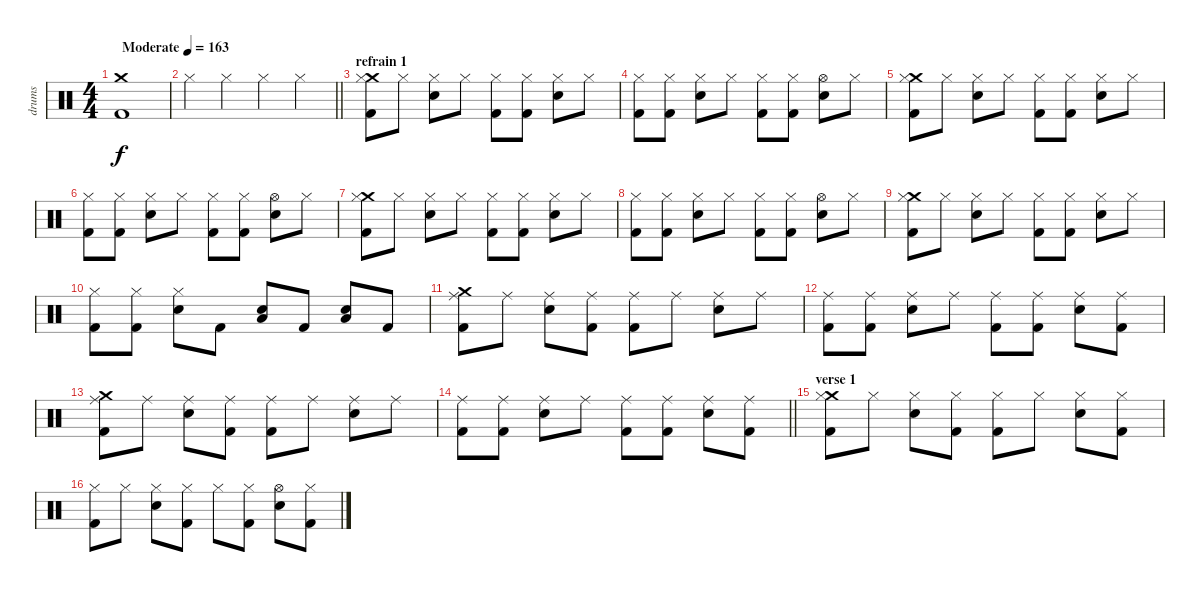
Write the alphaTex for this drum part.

\track ("drums" "drums") {instrument percussion}
\staff {score}
\articulation defaults
\ts (4 4)
\tempo (163 "Moderate")
\clef neutral
\ks c
("Crash medium (hit)" "Kick (hit) 2").1{dy f} |
\barLineRight lightlight "Hi-Hat (closed)".4 "Hi-Hat (closed)".4 "Hi-Hat (closed)".4 "Hi-Hat (closed)".4
|
\section ("" "refrain 1")
("Crash medium (hit)" "Hi-Hat (closed)" "Kick (hit) 2").8 "Hi-Hat (closed)".8 ("Hi-Hat (closed)" "Electric Snare (hit)").8 "Hi-Hat (closed)".8 ("Hi-Hat (closed)" "Kick (hit) 2").8 ("Hi-Hat (closed)" "Kick (hit) 2").8 ("Hi-Hat (closed)" "Electric Snare (hit)").8 "Hi-Hat (closed)".8 |
("Hi-Hat (closed)" "Kick (hit) 2").8 ("Hi-Hat (closed)" "Kick (hit) 2").8 ("Hi-Hat (closed)" "Electric Snare (hit)").8 "Hi-Hat (closed)".8 ("Hi-Hat (closed)" "Kick (hit) 2").8 ("Hi-Hat (closed)" "Kick (hit) 2").8 ("Hi-Hat (open)" "Electric Snare (hit)").8 "Hi-Hat (closed)".8 |
("Crash medium (hit)" "Hi-Hat (closed)" "Kick (hit) 2").8 "Hi-Hat (closed)".8 ("Hi-Hat (closed)" "Electric Snare (hit)").8 "Hi-Hat (closed)".8 ("Hi-Hat (closed)" "Kick (hit) 2").8 ("Hi-Hat (closed)" "Kick (hit) 2").8 ("Hi-Hat (closed)" "Electric Snare (hit)").8 "Hi-Hat (closed)".8 |
("Hi-Hat (closed)" "Kick (hit) 2").8 ("Hi-Hat (closed)" "Kick (hit) 2").8 ("Hi-Hat (closed)" "Electric Snare (hit)").8 "Hi-Hat (closed)".8 ("Hi-Hat (closed)" "Kick (hit) 2").8 ("Hi-Hat (closed)" "Kick (hit) 2").8 ("Hi-Hat (open)" "Electric Snare (hit)").8 "Hi-Hat (closed)".8 |
("Crash medium (hit)" "Hi-Hat (closed)" "Kick (hit) 2").8 "Hi-Hat (closed)".8 ("Hi-Hat (closed)" "Electric Snare (hit)").8 "Hi-Hat (closed)".8 ("Hi-Hat (closed)" "Kick (hit) 2").8 ("Hi-Hat (closed)" "Kick (hit) 2").8 ("Hi-Hat (closed)" "Electric Snare (hit)").8 "Hi-Hat (closed)".8 |
("Hi-Hat (closed)" "Kick (hit) 2").8 ("Hi-Hat (closed)" "Kick (hit) 2").8 ("Hi-Hat (closed)" "Electric Snare (hit)").8 "Hi-Hat (closed)".8 ("Hi-Hat (closed)" "Kick (hit) 2").8 ("Hi-Hat (closed)" "Kick (hit) 2").8 ("Hi-Hat (open)" "Electric Snare (hit)").8 "Hi-Hat (closed)".8 |
("Crash medium (hit)" "Hi-Hat (closed)" "Kick (hit) 2").8 "Hi-Hat (closed)".8 ("Hi-Hat (closed)" "Electric Snare (hit)").8 "Hi-Hat (closed)".8 ("Hi-Hat (closed)" "Kick (hit) 2").8 ("Hi-Hat (closed)" "Kick (hit) 2").8 ("Hi-Hat (closed)" "Electric Snare (hit)").8 "Hi-Hat (closed)".8 |
("Hi-Hat (closed)" "Kick (hit) 2").8 ("Hi-Hat (closed)" "Kick (hit) 2").8 ("Hi-Hat (closed)" "Electric Snare (hit)").8 "Kick (hit) 2".8 ("Low Tom (hit)" "Electric Snare (hit)").8 "Kick (hit) 2".8 ("Low Tom (hit)" "Electric Snare (hit)").8 "Kick (hit) 2".8 |
("Crash medium (hit)" "Ride (middle)" "Kick (hit) 2").8 "Ride (middle)".8 ("Ride (middle)" "Electric Snare (hit)").8 ("Ride (middle)" "Kick (hit) 2").8 ("Ride (middle)" "Kick (hit) 2").8 "Ride (middle)".8 ("Ride (middle)" "Electric Snare (hit)").8 "Ride (middle)".8 |
("Ride (middle)" "Kick (hit) 2").8 ("Ride (middle)" "Kick (hit) 2").8 ("Ride (middle)" "Electric Snare (hit)").8 "Ride (middle)".8 ("Ride (middle)" "Kick (hit) 2").8 ("Ride (middle)" "Kick (hit) 2").8 ("Ride (middle)" "Electric Snare (hit)").8 ("Ride (middle)" "Kick (hit) 2").8 |
("Crash medium (hit)" "Ride (middle)" "Kick (hit) 2").8 "Ride (middle)".8 ("Ride (middle)" "Electric Snare (hit)").8 ("Ride (middle)" "Kick (hit) 2").8 ("Ride (middle)" "Kick (hit) 2").8 "Ride (middle)".8 ("Ride (middle)" "Electric Snare (hit)").8 "Ride (middle)".8 |
\barLineRight lightlight
("Ride (middle)" "Kick (hit) 2").8 ("Ride (middle)" "Kick (hit) 2").8 ("Ride (middle)" "Electric Snare (hit)").8 "Ride (middle)".8 ("Ride (middle)" "Kick (hit) 2").8 ("Ride (middle)" "Kick (hit) 2").8 ("Ride (middle)" "Electric Snare (hit)").8 ("Ride (middle)" "Kick (hit) 2").8 |
\section ("" "verse 1")
("Crash medium (hit)" "Hi-Hat (closed)" "Kick (hit) 2").8 "Hi-Hat (closed)".8 ("Hi-Hat (closed)" "Electric Snare (hit)").8 ("Hi-Hat (closed)" "Kick (hit) 2").8 ("Hi-Hat (closed)" "Kick (hit) 2").8 "Hi-Hat (closed)".8 ("Hi-Hat (closed)" "Electric Snare (hit)").8 ("Hi-Hat (closed)" "Kick (hit) 2").8 |
("Hi-Hat (closed)" "Kick (hit) 2").8 "Hi-Hat (closed)".8 ("Hi-Hat (closed)" "Electric Snare (hit)").8 ("Hi-Hat (closed)" "Kick (hit) 2").8 "Hi-Hat (closed)".8 ("Hi-Hat (closed)" "Kick (hit) 2").8 ("Hi-Hat (open)" "Electric Snare (hit)").8 ("Hi-Hat (closed)" "Kick (hit) 2").8
